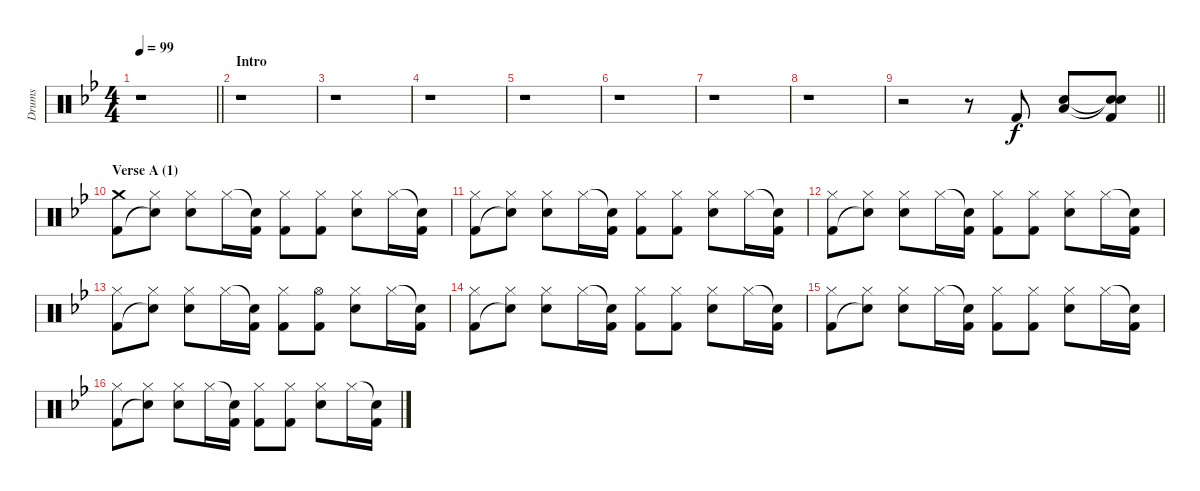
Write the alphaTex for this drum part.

\track ("Drums" "Drums") {instrument percussion}
\staff {score}
\articulation defaults
\ts (4 4)
\tempo 99
\clef neutral
\barLineRight lightlight
\ks gminor
r.1{dy f} |
\section ("" "Intro")
r.1 |
r.1 |
r.1 |
r.1 |
r.1 |
r.1 |
r.1 |
\barLineRight lightlight
r.2 r.8 "Kick (hit) 2".8 ("Electric Snare (hit)" "Low Floor Tom (hit)").8 ("Snare (hit)"{t} "Snare (hit)"{t} "Kick (hit) 2").8 |
\section ("" "Verse A (1)")
("Crash medium (hit)" "Kick (hit) 2").8 ("Hi-Hat (closed)" "Snare (hit)"{t}).8 ("Hi-Hat (closed)" "Electric Snare (hit)").8 "Hi-Hat (closed)".16 ("Snare (hit)"{t} "Kick (hit) 2").16 ("Hi-Hat (closed)" "Kick (hit) 2").8 ("Hi-Hat (closed)" "Kick (hit) 2").8 ("Hi-Hat (closed)" "Electric Snare (hit)").8 "Hi-Hat (closed)".16 ("Snare (hit)"{t} "Kick (hit) 2").16 |
("Hi-Hat (closed)" "Kick (hit) 2").8 ("Hi-Hat (closed)" "Snare (hit)"{t}).8 ("Hi-Hat (closed)" "Electric Snare (hit)").8 "Hi-Hat (closed)".16 ("Snare (hit)"{t} "Kick (hit) 2").16 ("Hi-Hat (closed)" "Kick (hit) 2").8 ("Hi-Hat (closed)" "Kick (hit) 2").8 ("Hi-Hat (closed)" "Electric Snare (hit)").8 "Hi-Hat (closed)".16 ("Snare (hit)"{t} "Kick (hit) 2").16 |
("Hi-Hat (closed)" "Kick (hit) 2").8 ("Hi-Hat (closed)" "Snare (hit)"{t}).8 ("Hi-Hat (closed)" "Electric Snare (hit)").8 "Hi-Hat (closed)".16 ("Snare (hit)"{t} "Kick (hit) 2").16 ("Hi-Hat (closed)" "Kick (hit) 2").8 ("Hi-Hat (closed)" "Kick (hit) 2").8 ("Hi-Hat (closed)" "Electric Snare (hit)").8 "Hi-Hat (closed)".16 ("Snare (hit)"{t} "Kick (hit) 2").16 |
("Hi-Hat (closed)" "Kick (hit) 2").8 ("Hi-Hat (closed)" "Snare (hit)"{t}).8 ("Hi-Hat (closed)" "Electric Snare (hit)").8 "Hi-Hat (closed)".16 ("Snare (hit)"{t} "Kick (hit) 2").16 ("Hi-Hat (closed)" "Kick (hit) 2").8 ("Hi-Hat (open)" "Kick (hit) 2").8 ("Hi-Hat (closed)" "Electric Snare (hit)").8 "Hi-Hat (closed)".16 ("Snare (hit)"{t} "Kick (hit) 2").16 |
("Hi-Hat (closed)" "Kick (hit) 2").8 ("Hi-Hat (closed)" "Snare (hit)"{t}).8 ("Hi-Hat (closed)" "Electric Snare (hit)").8 "Hi-Hat (closed)".16 ("Snare (hit)"{t} "Kick (hit) 2").16 ("Hi-Hat (closed)" "Kick (hit) 2").8 ("Hi-Hat (closed)" "Kick (hit) 2").8 ("Hi-Hat (closed)" "Electric Snare (hit)").8 "Hi-Hat (closed)".16 ("Snare (hit)"{t} "Kick (hit) 2").16 |
("Hi-Hat (closed)" "Kick (hit) 2").8 ("Hi-Hat (closed)" "Snare (hit)"{t}).8 ("Hi-Hat (closed)" "Electric Snare (hit)").8 "Hi-Hat (closed)".16 ("Snare (hit)"{t} "Kick (hit) 2").16 ("Hi-Hat (closed)" "Kick (hit) 2").8 ("Hi-Hat (closed)" "Kick (hit) 2").8 ("Hi-Hat (closed)" "Electric Snare (hit)").8 "Hi-Hat (closed)".16 ("Snare (hit)"{t} "Kick (hit) 2").16 |
("Hi-Hat (closed)" "Kick (hit) 2").8 ("Hi-Hat (closed)" "Snare (hit)"{t}).8 ("Hi-Hat (closed)" "Electric Snare (hit)").8 "Hi-Hat (closed)".16 ("Snare (hit)"{t} "Kick (hit) 2").16 ("Hi-Hat (closed)" "Kick (hit) 2").8 ("Hi-Hat (closed)" "Kick (hit) 2").8 ("Hi-Hat (closed)" "Electric Snare (hit)").8 "Hi-Hat (closed)".16 ("Snare (hit)"{t} "Kick (hit) 2").16
